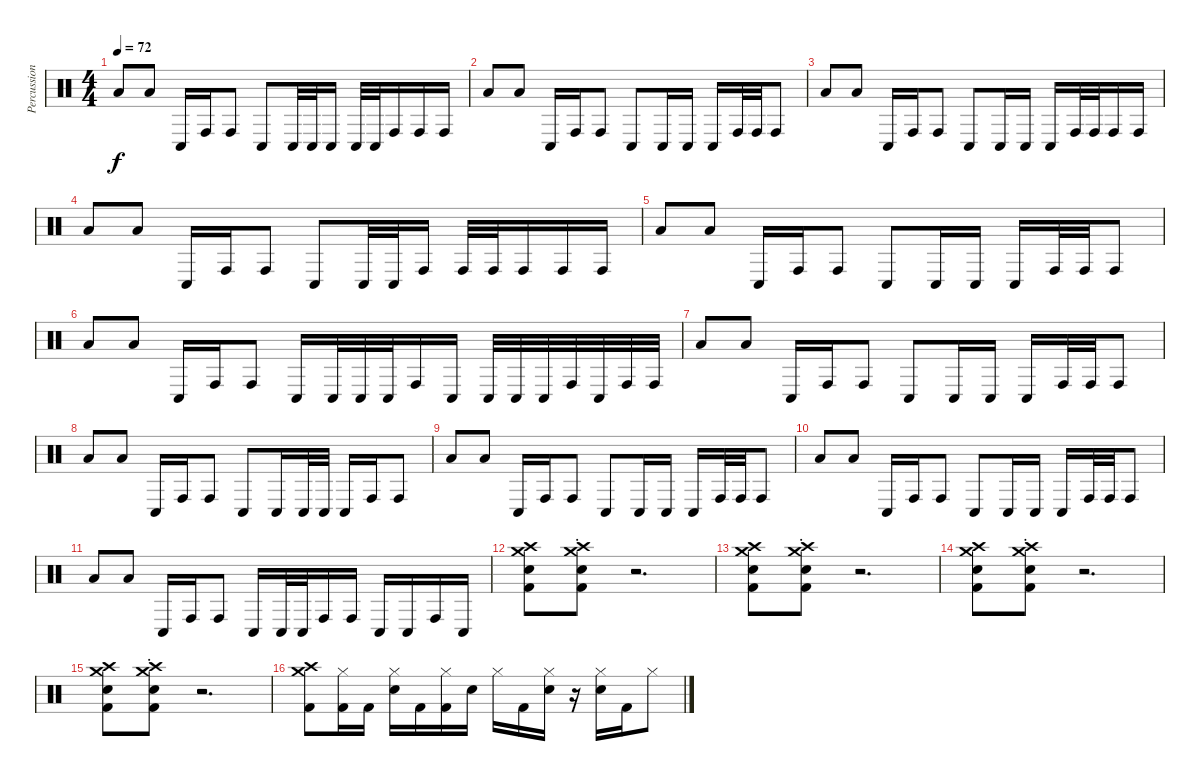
\track ("Percussion" "Percussion") {instrument percussion}
\staff {score}
\articulation defaults
\ts (4 4)
\tempo 72
\clef neutral
\ks c "Low Tom (hit)".8{dy f} "Low Tom (hit)".8 "Conga low (hit)".16 "Conga high (hit)".16 "Conga high (hit)".8 "Conga low (hit)".8 "Conga low (hit)".32 "Conga low (hit)".32 "Conga low (hit)".16 "Conga low (hit)".32 "Conga low (hit)".32 "Conga high (hit)".16 "Conga high (hit)".16 "Conga high (hit)".16
|
"Low Tom (hit)".8 "Low Tom (hit)".8 "Conga low (hit)".16 "Conga high (hit)".16 "Conga high (hit)".8 "Conga low (hit)".8 "Conga low (hit)".16 "Conga low (hit)".16 "Conga low (hit)".16 "Conga high (hit)".32 "Conga high (hit)".32 "Conga high (hit)".8 |
"Low Tom (hit)".8 "Low Tom (hit)".8 "Conga low (hit)".16 "Conga high (hit)".16 "Conga high (hit)".8 "Conga low (hit)".8 "Conga low (hit)".16 "Conga low (hit)".16 "Conga low (hit)".16 "Conga high (hit)".32 "Conga high (hit)".32 "Conga high (hit)".16 "Conga high (hit)".16 |
"Low Tom (hit)".8 "Low Tom (hit)".8 "Conga low (hit)".16 "Conga high (hit)".16 "Conga high (hit)".8 "Conga low (hit)".8 "Conga low (hit)".32 "Conga low (hit)".32 "Conga high (hit)".16 "Conga high (hit)".32 "Conga high (hit)".32 "Conga high (hit)".16 "Conga high (hit)".16 "Conga high (hit)".16 |
"Low Tom (hit)".8 "Low Tom (hit)".8 "Conga low (hit)".16 "Conga high (hit)".16 "Conga high (hit)".8 "Conga low (hit)".8 "Conga low (hit)".16 "Conga low (hit)".16 "Conga low (hit)".16 "Conga high (hit)".32 "Conga high (hit)".32 "Conga high (hit)".8 |
"Low Tom (hit)".8 "Low Tom (hit)".8 "Conga low (hit)".16 "Conga high (hit)".16 "Conga high (hit)".8 "Conga low (hit)".16 "Conga low (hit)".32 "Conga low (hit)".32 "Conga low (hit)".32 "Conga high (hit)".16 "Conga low (hit)".16 "Conga low (hit)".32 "Conga low (hit)".32 "Conga low (hit)".32 "Conga high (hit)".32 "Conga low (hit)".32 "Conga high (hit)".32 "Conga high (hit)".32 |
"Low Tom (hit)".8 "Low Tom (hit)".8 "Conga low (hit)".16 "Conga high (hit)".16 "Conga high (hit)".8 "Conga low (hit)".8 "Conga low (hit)".16 "Conga low (hit)".16 "Conga low (hit)".16 "Conga high (hit)".32 "Conga high (hit)".32 "Conga high (hit)".8 |
"Low Tom (hit)".8 "Low Tom (hit)".8 "Conga low (hit)".16 "Conga high (hit)".16 "Conga high (hit)".8 "Conga low (hit)".8 "Conga low (hit)".16 "Conga low (hit)".32 "Conga low (hit)".32 "Conga low (hit)".16 "Conga high (hit)".16 "Conga high (hit)".8 |
"Low Tom (hit)".8 "Low Tom (hit)".8 "Conga low (hit)".16 "Conga high (hit)".16 "Conga high (hit)".8 "Conga low (hit)".8 "Conga low (hit)".16 "Conga low (hit)".16 "Conga low (hit)".16 "Conga high (hit)".32 "Conga high (hit)".32 "Conga high (hit)".8 |
"Low Tom (hit)".8 "Low Tom (hit)".8 "Conga low (hit)".16 "Conga high (hit)".16 "Conga high (hit)".8 "Conga low (hit)".8 "Conga low (hit)".16 "Conga low (hit)".16 "Conga low (hit)".16 "Conga high (hit)".32 "Conga high (hit)".32 "Conga high (hit)".8 |
"Low Tom (hit)".8 "Low Tom (hit)".8 "Conga low (hit)".16 "Conga high (hit)".16 "Conga high (hit)".8 "Conga low (hit)".16 "Conga low (hit)".32 "Conga low (hit)".32 "Conga high (hit)".16 "Conga high (hit)".16 "Conga low (hit)".16 "Conga low (hit)".16 "Conga high (hit)".16 "Conga low (hit)".16 |
("Crash medium (hit)" "Crash high (hit)" "Snare (hit) 2" "Kick (hit) 2").8 ("Crash medium (hit)"{st} "Crash high (hit)"{st} "Snare (hit) 2"{st} "Kick (hit) 2"{st}).8 r.2{d} |
("Crash medium (hit)" "Crash high (hit)" "Snare (hit) 2" "Kick (hit) 2").8 ("Crash medium (hit)"{st} "Crash high (hit)"{st} "Snare (hit) 2"{st} "Kick (hit) 2"{st}).8 r.2{d} |
("Crash medium (hit)" "Crash high (hit)" "Snare (hit) 2" "Kick (hit) 2").8 ("Crash medium (hit)"{st} "Crash high (hit)"{st} "Snare (hit) 2"{st} "Kick (hit) 2"{st}).8 r.2{d} |
("Crash medium (hit)" "Crash high (hit)" "Snare (hit) 2" "Kick (hit) 2").8 ("Crash medium (hit)"{st} "Crash high (hit)"{st} "Snare (hit) 2"{st} "Kick (hit) 2"{st}).8 r.2{d} |
("Crash medium (hit)" "Crash high (hit)" "Kick (hit) 2").8 ("Hi-Hat (closed)" "Kick (hit) 2").16 "Kick (hit) 2".16 ("Hi-Hat (closed)" "Snare (hit) 2").16 "Kick (hit) 2".16 ("Hi-Hat (closed)" "Kick (hit) 2").16 "Snare (hit) 2".16 "Hi-Hat (closed)".16 "Kick (hit) 2".16 ("Hi-Hat (closed)" "Snare (hit) 2").16 r.16 ("Hi-Hat (closed)" "Snare (hit) 2").16 "Kick (hit) 2".16 "Hi-Hat (closed)".8
